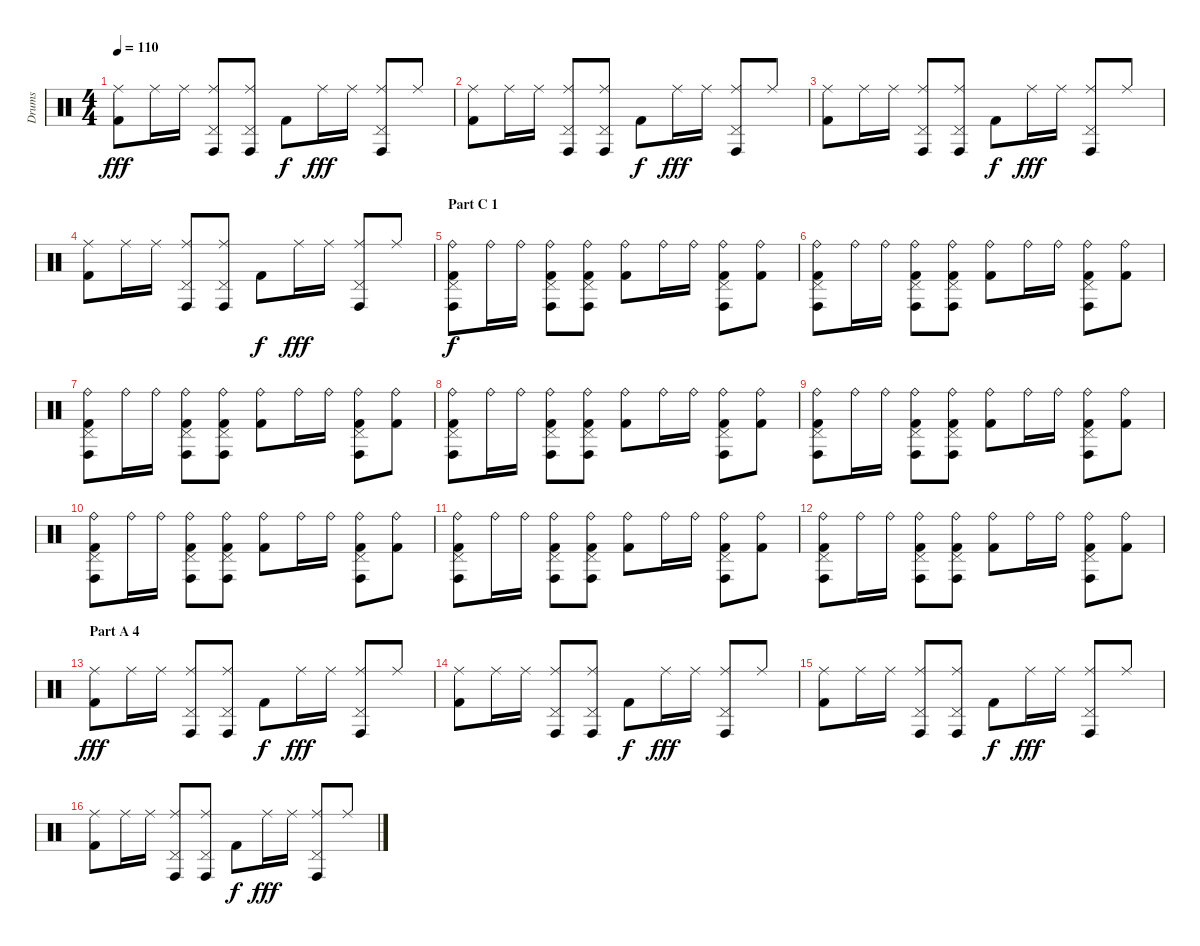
\track ("Drums" "Drums") {instrument percussion}
\staff {score}
\articulation defaults
\ts (4 4)
\tempo 110
\clef neutral
\ks c
("Ride (middle)" "Kick (hit) 2").8{dy fff} "Ride (middle)".16 "Ride (middle)".16 ("Ride (middle)" "Pedal Hi-Hat (hit)" "Conga high (hit)").8 ("Ride (middle)" "Pedal Hi-Hat (hit)" "Conga high (hit)").8 "Kick (hit) 2".8{dy f} "Ride (middle)".16{dy fff} "Ride (middle)".16 ("Ride (middle)" "Pedal Hi-Hat (hit)" "Conga high (hit)").8 "Ride (middle)".8 |
("Ride (middle)" "Kick (hit) 2").8 "Ride (middle)".16 "Ride (middle)".16 ("Ride (middle)" "Pedal Hi-Hat (hit)" "Conga high (hit)").8 ("Ride (middle)" "Pedal Hi-Hat (hit)" "Conga high (hit)").8 "Kick (hit) 2".8{dy f} "Ride (middle)".16{dy fff} "Ride (middle)".16 ("Ride (middle)" "Pedal Hi-Hat (hit)" "Conga high (hit)").8 "Ride (middle)".8 |
("Ride (middle)" "Kick (hit) 2").8 "Ride (middle)".16 "Ride (middle)".16 ("Ride (middle)" "Pedal Hi-Hat (hit)" "Conga high (hit)").8 ("Ride (middle)" "Pedal Hi-Hat (hit)" "Conga high (hit)").8 "Kick (hit) 2".8{dy f} "Ride (middle)".16{dy fff} "Ride (middle)".16 ("Ride (middle)" "Pedal Hi-Hat (hit)" "Conga high (hit)").8 "Ride (middle)".8 |
("Ride (middle)" "Kick (hit) 2").8 "Ride (middle)".16 "Ride (middle)".16 ("Ride (middle)" "Pedal Hi-Hat (hit)" "Conga high (hit)").8 ("Ride (middle)" "Pedal Hi-Hat (hit)" "Conga high (hit)").8 "Kick (hit) 2".8{dy f} "Ride (middle)".16{dy fff} "Ride (middle)".16 ("Ride (middle)" "Pedal Hi-Hat (hit)" "Conga high (hit)").8 "Ride (middle)".8 |
\section ("" "Part C 1")
("Ride (bell)" "Pedal Hi-Hat (hit)" "Conga high (hit)" "Kick (hit) 2").8{dy f} "Ride (bell)".16 "Ride (bell)".16 ("Ride (bell)" "Pedal Hi-Hat (hit)" "Conga high (hit)" "Kick (hit) 2").8 ("Ride (bell)" "Pedal Hi-Hat (hit)" "Conga high (hit)" "Kick (hit) 2").8 ("Ride (bell)" "Kick (hit) 2").8 "Ride (bell)".16 "Ride (bell)".16 ("Ride (bell)" "Pedal Hi-Hat (hit)" "Conga high (hit)" "Kick (hit) 2").8 ("Ride (bell)" "Kick (hit) 2").8 |
("Ride (bell)" "Pedal Hi-Hat (hit)" "Conga high (hit)" "Kick (hit) 2").8 "Ride (bell)".16 "Ride (bell)".16 ("Ride (bell)" "Pedal Hi-Hat (hit)" "Conga high (hit)" "Kick (hit) 2").8 ("Ride (bell)" "Pedal Hi-Hat (hit)" "Conga high (hit)" "Kick (hit) 2").8 ("Ride (bell)" "Kick (hit) 2").8 "Ride (bell)".16 "Ride (bell)".16 ("Ride (bell)" "Pedal Hi-Hat (hit)" "Conga high (hit)" "Kick (hit) 2").8 ("Ride (bell)" "Kick (hit) 2").8 |
("Ride (bell)" "Pedal Hi-Hat (hit)" "Conga high (hit)" "Kick (hit) 2").8 "Ride (bell)".16 "Ride (bell)".16 ("Ride (bell)" "Pedal Hi-Hat (hit)" "Conga high (hit)" "Kick (hit) 2").8 ("Ride (bell)" "Pedal Hi-Hat (hit)" "Conga high (hit)" "Kick (hit) 2").8 ("Ride (bell)" "Kick (hit) 2").8 "Ride (bell)".16 "Ride (bell)".16 ("Ride (bell)" "Pedal Hi-Hat (hit)" "Conga high (hit)" "Kick (hit) 2").8 ("Ride (bell)" "Kick (hit) 2").8 |
("Ride (bell)" "Pedal Hi-Hat (hit)" "Conga high (hit)" "Kick (hit) 2").8 "Ride (bell)".16 "Ride (bell)".16 ("Ride (bell)" "Pedal Hi-Hat (hit)" "Conga high (hit)" "Kick (hit) 2").8 ("Ride (bell)" "Pedal Hi-Hat (hit)" "Conga high (hit)" "Kick (hit) 2").8 ("Ride (bell)" "Kick (hit) 2").8 "Ride (bell)".16 "Ride (bell)".16 ("Ride (bell)" "Pedal Hi-Hat (hit)" "Conga high (hit)" "Kick (hit) 2").8 ("Ride (bell)" "Kick (hit) 2").8 |
("Ride (bell)" "Pedal Hi-Hat (hit)" "Conga high (hit)" "Kick (hit) 2").8 "Ride (bell)".16 "Ride (bell)".16 ("Ride (bell)" "Pedal Hi-Hat (hit)" "Conga high (hit)" "Kick (hit) 2").8 ("Ride (bell)" "Pedal Hi-Hat (hit)" "Conga high (hit)" "Kick (hit) 2").8 ("Ride (bell)" "Kick (hit) 2").8 "Ride (bell)".16 "Ride (bell)".16 ("Ride (bell)" "Pedal Hi-Hat (hit)" "Conga high (hit)" "Kick (hit) 2").8 ("Ride (bell)" "Kick (hit) 2").8 |
("Ride (bell)" "Pedal Hi-Hat (hit)" "Conga high (hit)" "Kick (hit) 2").8 "Ride (bell)".16 "Ride (bell)".16 ("Ride (bell)" "Pedal Hi-Hat (hit)" "Conga high (hit)" "Kick (hit) 2").8 ("Ride (bell)" "Pedal Hi-Hat (hit)" "Conga high (hit)" "Kick (hit) 2").8 ("Ride (bell)" "Kick (hit) 2").8 "Ride (bell)".16 "Ride (bell)".16 ("Ride (bell)" "Pedal Hi-Hat (hit)" "Conga high (hit)" "Kick (hit) 2").8 ("Ride (bell)" "Kick (hit) 2").8 |
("Ride (bell)" "Pedal Hi-Hat (hit)" "Conga high (hit)" "Kick (hit) 2").8 "Ride (bell)".16 "Ride (bell)".16 ("Ride (bell)" "Pedal Hi-Hat (hit)" "Conga high (hit)" "Kick (hit) 2").8 ("Ride (bell)" "Pedal Hi-Hat (hit)" "Conga high (hit)" "Kick (hit) 2").8 ("Ride (bell)" "Kick (hit) 2").8 "Ride (bell)".16 "Ride (bell)".16 ("Ride (bell)" "Pedal Hi-Hat (hit)" "Conga high (hit)" "Kick (hit) 2").8 ("Ride (bell)" "Kick (hit) 2").8 |
("Ride (bell)" "Pedal Hi-Hat (hit)" "Conga high (hit)" "Kick (hit) 2").8 "Ride (bell)".16 "Ride (bell)".16 ("Ride (bell)" "Pedal Hi-Hat (hit)" "Conga high (hit)" "Kick (hit) 2").8 ("Ride (bell)" "Pedal Hi-Hat (hit)" "Conga high (hit)" "Kick (hit) 2").8 ("Ride (bell)" "Kick (hit) 2").8 "Ride (bell)".16 "Ride (bell)".16 ("Ride (bell)" "Pedal Hi-Hat (hit)" "Conga high (hit)" "Kick (hit) 2").8 ("Ride (bell)" "Kick (hit) 2").8 |
\section ("" "Part A 4")
("Ride (middle)" "Kick (hit) 2").8{dy fff} "Ride (middle)".16 "Ride (middle)".16 ("Ride (middle)" "Pedal Hi-Hat (hit)" "Conga high (hit)").8 ("Ride (middle)" "Pedal Hi-Hat (hit)" "Conga high (hit)").8 "Kick (hit) 2".8{dy f} "Ride (middle)".16{dy fff} "Ride (middle)".16 ("Ride (middle)" "Pedal Hi-Hat (hit)" "Conga high (hit)").8 "Ride (middle)".8 |
("Ride (middle)" "Kick (hit) 2").8 "Ride (middle)".16 "Ride (middle)".16 ("Ride (middle)" "Pedal Hi-Hat (hit)" "Conga high (hit)").8 ("Ride (middle)" "Pedal Hi-Hat (hit)" "Conga high (hit)").8 "Kick (hit) 2".8{dy f} "Ride (middle)".16{dy fff} "Ride (middle)".16 ("Ride (middle)" "Pedal Hi-Hat (hit)" "Conga high (hit)").8 "Ride (middle)".8 |
("Ride (middle)" "Kick (hit) 2").8 "Ride (middle)".16 "Ride (middle)".16 ("Ride (middle)" "Pedal Hi-Hat (hit)" "Conga high (hit)").8 ("Ride (middle)" "Pedal Hi-Hat (hit)" "Conga high (hit)").8 "Kick (hit) 2".8{dy f} "Ride (middle)".16{dy fff} "Ride (middle)".16 ("Ride (middle)" "Pedal Hi-Hat (hit)" "Conga high (hit)").8 "Ride (middle)".8 |
("Ride (middle)" "Kick (hit) 2").8 "Ride (middle)".16 "Ride (middle)".16 ("Ride (middle)" "Pedal Hi-Hat (hit)" "Conga high (hit)").8 ("Ride (middle)" "Pedal Hi-Hat (hit)" "Conga high (hit)").8 "Kick (hit) 2".8{dy f} "Ride (middle)".16{dy fff} "Ride (middle)".16 ("Ride (middle)" "Pedal Hi-Hat (hit)" "Conga high (hit)").8 "Ride (middle)".8
